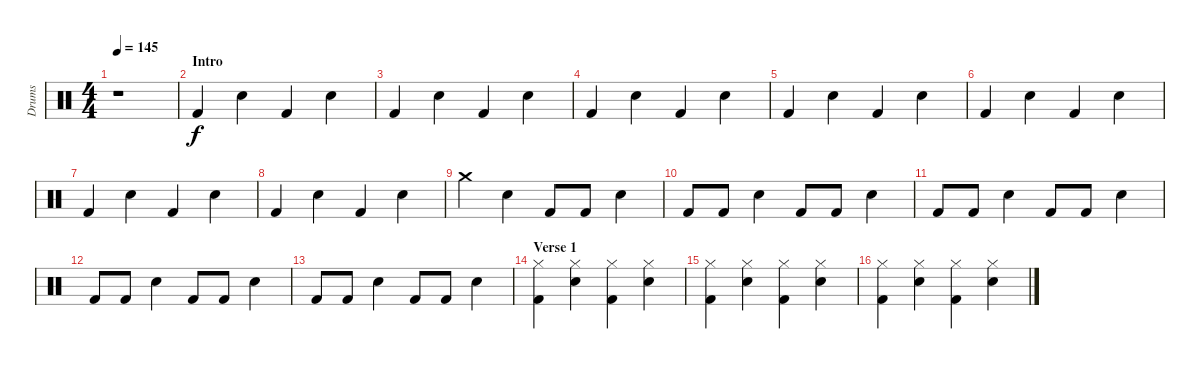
\track ("Drums" "Drums") {instrument percussion}
\staff {score}
\articulation defaults
\ts (4 4)
\tempo 145
\clef neutral
\ks c
r.1{dy f} |
\section ("" "Intro")
"Kick (hit) 2".4 "Electric Snare (hit)".4 "Kick (hit) 2".4 "Electric Snare (hit)".4 |
"Kick (hit) 2".4 "Electric Snare (hit)".4 "Kick (hit) 2".4 "Electric Snare (hit)".4 |
"Kick (hit) 2".4 "Electric Snare (hit)".4 "Kick (hit) 2".4 "Electric Snare (hit)".4 |
"Kick (hit) 2".4 "Electric Snare (hit)".4 "Kick (hit) 2".4 "Electric Snare (hit)".4 |
"Kick (hit) 2".4 "Electric Snare (hit)".4 "Kick (hit) 2".4 "Electric Snare (hit)".4 |
"Kick (hit) 2".4 "Electric Snare (hit)".4 "Kick (hit) 2".4 "Electric Snare (hit)".4 |
"Kick (hit) 2".4 "Electric Snare (hit)".4 "Kick (hit) 2".4 "Electric Snare (hit)".4 |
"Crash medium (hit)".4 "Electric Snare (hit)".4 "Kick (hit) 2".8 "Kick (hit) 2".8 "Electric Snare (hit)".4 |
"Kick (hit) 2".8 "Kick (hit) 2".8 "Electric Snare (hit)".4 "Kick (hit) 2".8 "Kick (hit) 2".8 "Electric Snare (hit)".4 |
"Kick (hit) 2".8 "Kick (hit) 2".8 "Electric Snare (hit)".4 "Kick (hit) 2".8 "Kick (hit) 2".8 "Electric Snare (hit)".4 |
"Kick (hit) 2".8 "Kick (hit) 2".8 "Electric Snare (hit)".4 "Kick (hit) 2".8 "Kick (hit) 2".8 "Electric Snare (hit)".4 |
"Kick (hit) 2".8 "Kick (hit) 2".8 "Electric Snare (hit)".4 "Kick (hit) 2".8 "Kick (hit) 2".8 "Electric Snare (hit)".4 |
\section ("" "Verse 1")
("Kick (hit) 2" "Hi-Hat (closed)").4 ("Electric Snare (hit)" "Hi-Hat (closed)").4 ("Kick (hit) 2" "Hi-Hat (closed)").4 ("Electric Snare (hit)" "Hi-Hat (closed)").4 |
("Kick (hit) 2" "Hi-Hat (closed)").4 ("Electric Snare (hit)" "Hi-Hat (closed)").4 ("Kick (hit) 2" "Hi-Hat (closed)").4 ("Electric Snare (hit)" "Hi-Hat (closed)").4 |
("Kick (hit) 2" "Hi-Hat (closed)").4 ("Electric Snare (hit)" "Hi-Hat (closed)").4 ("Kick (hit) 2" "Hi-Hat (closed)").4 ("Electric Snare (hit)" "Hi-Hat (closed)").4
